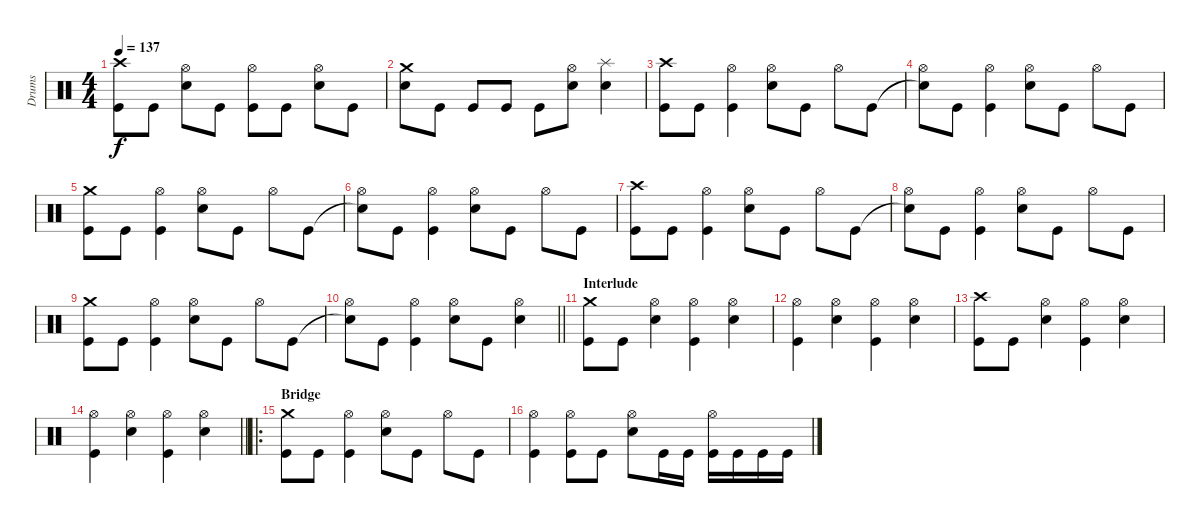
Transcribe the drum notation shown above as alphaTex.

\track ("Drums" "Drums") {instrument percussion}
\staff {score}
\articulation defaults
\ts (4 4)
\tempo 137
\clef neutral
\ks c
("Kick (hit)" "Crash high (hit)").8{dy f} "Kick (hit)".8 ("Snare (hit) 2" "Hi-Hat (open)").8 "Kick (hit)".8 ("Kick (hit)" "Hi-Hat (open)").8 "Kick (hit)".8 ("Snare (hit) 2" "Hi-Hat (open)").8 "Kick (hit)".8 |
("Snare (hit) 2" "Crash medium (hit)").8 "Kick (hit)".8 "Kick (hit)".8 "Kick (hit)".8 "Kick (hit)".8 ("Snare (hit) 2" "Hi-Hat (open)").8 ("Snare (hit) 2" "Splash (hit)").4 |
("Kick (hit)" "Crash high (hit)").8 "Kick (hit)".8 ("Kick (hit)" "Hi-Hat (open)").4 ("Snare (hit) 2" "Hi-Hat (open)").8 "Kick (hit)".8 "Hi-Hat (open)".8 "Kick (hit)".8 |
("Snare (hit)"{t} "Hi-Hat (open)").8 "Kick (hit)".8 ("Kick (hit)" "Hi-Hat (open)").4 ("Snare (hit) 2" "Hi-Hat (open)").8 "Kick (hit)".8 "Hi-Hat (open)".8 "Kick (hit)".8 |
("Kick (hit)" "Crash medium (hit)").8 "Kick (hit)".8 ("Kick (hit)" "Hi-Hat (open)").4 ("Snare (hit) 2" "Hi-Hat (open)").8 "Kick (hit)".8 "Hi-Hat (open)".8 "Kick (hit)".8 |
("Snare (hit)"{t} "Hi-Hat (open)").8 "Kick (hit)".8 ("Kick (hit)" "Hi-Hat (open)").4 ("Snare (hit) 2" "Hi-Hat (open)").8 "Kick (hit)".8 "Hi-Hat (open)".8 "Kick (hit)".8 |
("Kick (hit)" "Crash high (hit)").8 "Kick (hit)".8 ("Kick (hit)" "Hi-Hat (open)").4 ("Snare (hit) 2" "Hi-Hat (open)").8 "Kick (hit)".8 "Hi-Hat (open)".8 "Kick (hit)".8 |
("Snare (hit)"{t} "Hi-Hat (open)").8 "Kick (hit)".8 ("Kick (hit)" "Hi-Hat (open)").4 ("Snare (hit) 2" "Hi-Hat (open)").8 "Kick (hit)".8 "Hi-Hat (open)".8 "Kick (hit)".8 |
("Kick (hit)" "Crash medium (hit)").8 "Kick (hit)".8 ("Kick (hit)" "Hi-Hat (open)").4 ("Snare (hit) 2" "Hi-Hat (open)").8 "Kick (hit)".8 "Hi-Hat (open)".8 "Kick (hit)".8 |
\barLineRight lightlight
("Snare (hit)"{t} "Hi-Hat (open)").8 "Kick (hit)".8 ("Kick (hit)" "Hi-Hat (open)").4 ("Snare (hit) 2" "Hi-Hat (open)").8 "Kick (hit)".8 ("Snare (hit) 2" "Hi-Hat (open)").4 |
\section ("" "Interlude")
("Kick (hit)" "Crash medium (hit)").8 "Kick (hit)".8 ("Snare (hit) 2" "Hi-Hat (open)").4 ("Kick (hit)" "Hi-Hat (open)").4 ("Snare (hit) 2" "Hi-Hat (open)").4 |
("Kick (hit)" "Hi-Hat (open)").4 ("Snare (hit) 2" "Hi-Hat (open)").4 ("Kick (hit)" "Hi-Hat (open)").4 ("Snare (hit) 2" "Hi-Hat (open)").4 |
("Kick (hit)" "Crash high (hit)").8 "Kick (hit)".8 ("Snare (hit) 2" "Hi-Hat (open)").4 ("Kick (hit)" "Hi-Hat (open)").4 ("Snare (hit) 2" "Hi-Hat (open)").4 |
\barLineRight lightlight
("Kick (hit)" "Hi-Hat (open)").4 ("Snare (hit) 2" "Hi-Hat (open)").4 ("Kick (hit)" "Hi-Hat (open)").4 ("Snare (hit) 2" "Hi-Hat (open)").4 |
\ro
\section ("" "Bridge")
("Kick (hit)" "Crash medium (hit)").8 "Kick (hit)".8 ("Kick (hit)" "Hi-Hat (open)").4 ("Snare (hit) 2" "Hi-Hat (open)").8 "Kick (hit)".8 "Hi-Hat (open)".8 "Kick (hit)".8 |
("Kick (hit)" "Hi-Hat (open)").4 ("Kick (hit)" "Hi-Hat (open)").8 "Kick (hit)".8 ("Snare (hit) 2" "Hi-Hat (open)").8 "Kick (hit)".16 "Kick (hit)".16 ("Kick (hit)" "Hi-Hat (open)").16 "Kick (hit)".16 "Kick (hit)".16 "Kick (hit)".16
